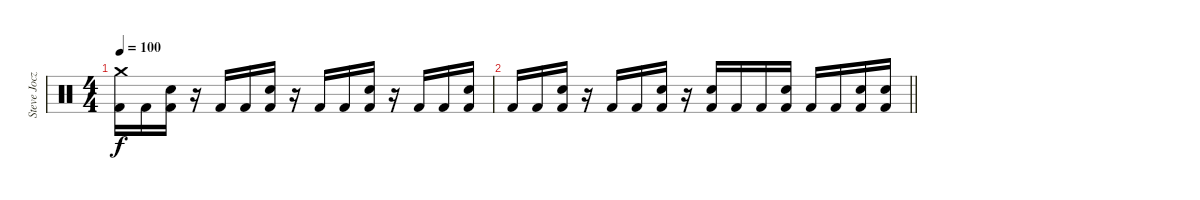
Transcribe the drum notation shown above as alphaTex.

\track ("Steve Jocz" "Steve Jocz") {instrument percussion}
\staff {score}
\articulation defaults
\ts (4 4)
\tempo 100
\clef neutral
\ks c
("Crash medium (hit)" "Kick (hit) 2").16{dy f} "Kick (hit) 2".16 ("Snare (hit) 2" "Kick (hit) 2").16 r.16 "Kick (hit) 2".16 "Kick (hit) 2".16 ("Snare (hit) 2" "Kick (hit) 2").16 r.16 "Kick (hit) 2".16 "Kick (hit) 2".16 ("Snare (hit) 2" "Kick (hit) 2").16 r.16 "Kick (hit) 2".16 "Kick (hit) 2".16 ("Snare (hit) 2" "Kick (hit) 2").16 |
\barLineRight lightlight "Kick (hit) 2".16 "Kick (hit) 2".16
("Snare (hit) 2" "Kick (hit) 2").16 r.16 "Kick (hit) 2".16 "Kick (hit) 2".16 ("Snare (hit) 2" "Kick (hit) 2").16 r.16 ("Snare (hit) 2" "Kick (hit) 2").16 "Kick (hit) 2".16 "Kick (hit) 2".16 ("Snare (hit) 2" "Kick (hit) 2").16 "Kick (hit) 2".16 "Kick (hit) 2".16 ("Snare (hit) 2" "Kick (hit) 2").16 ("Snare (hit) 2" "Kick (hit) 2").16
